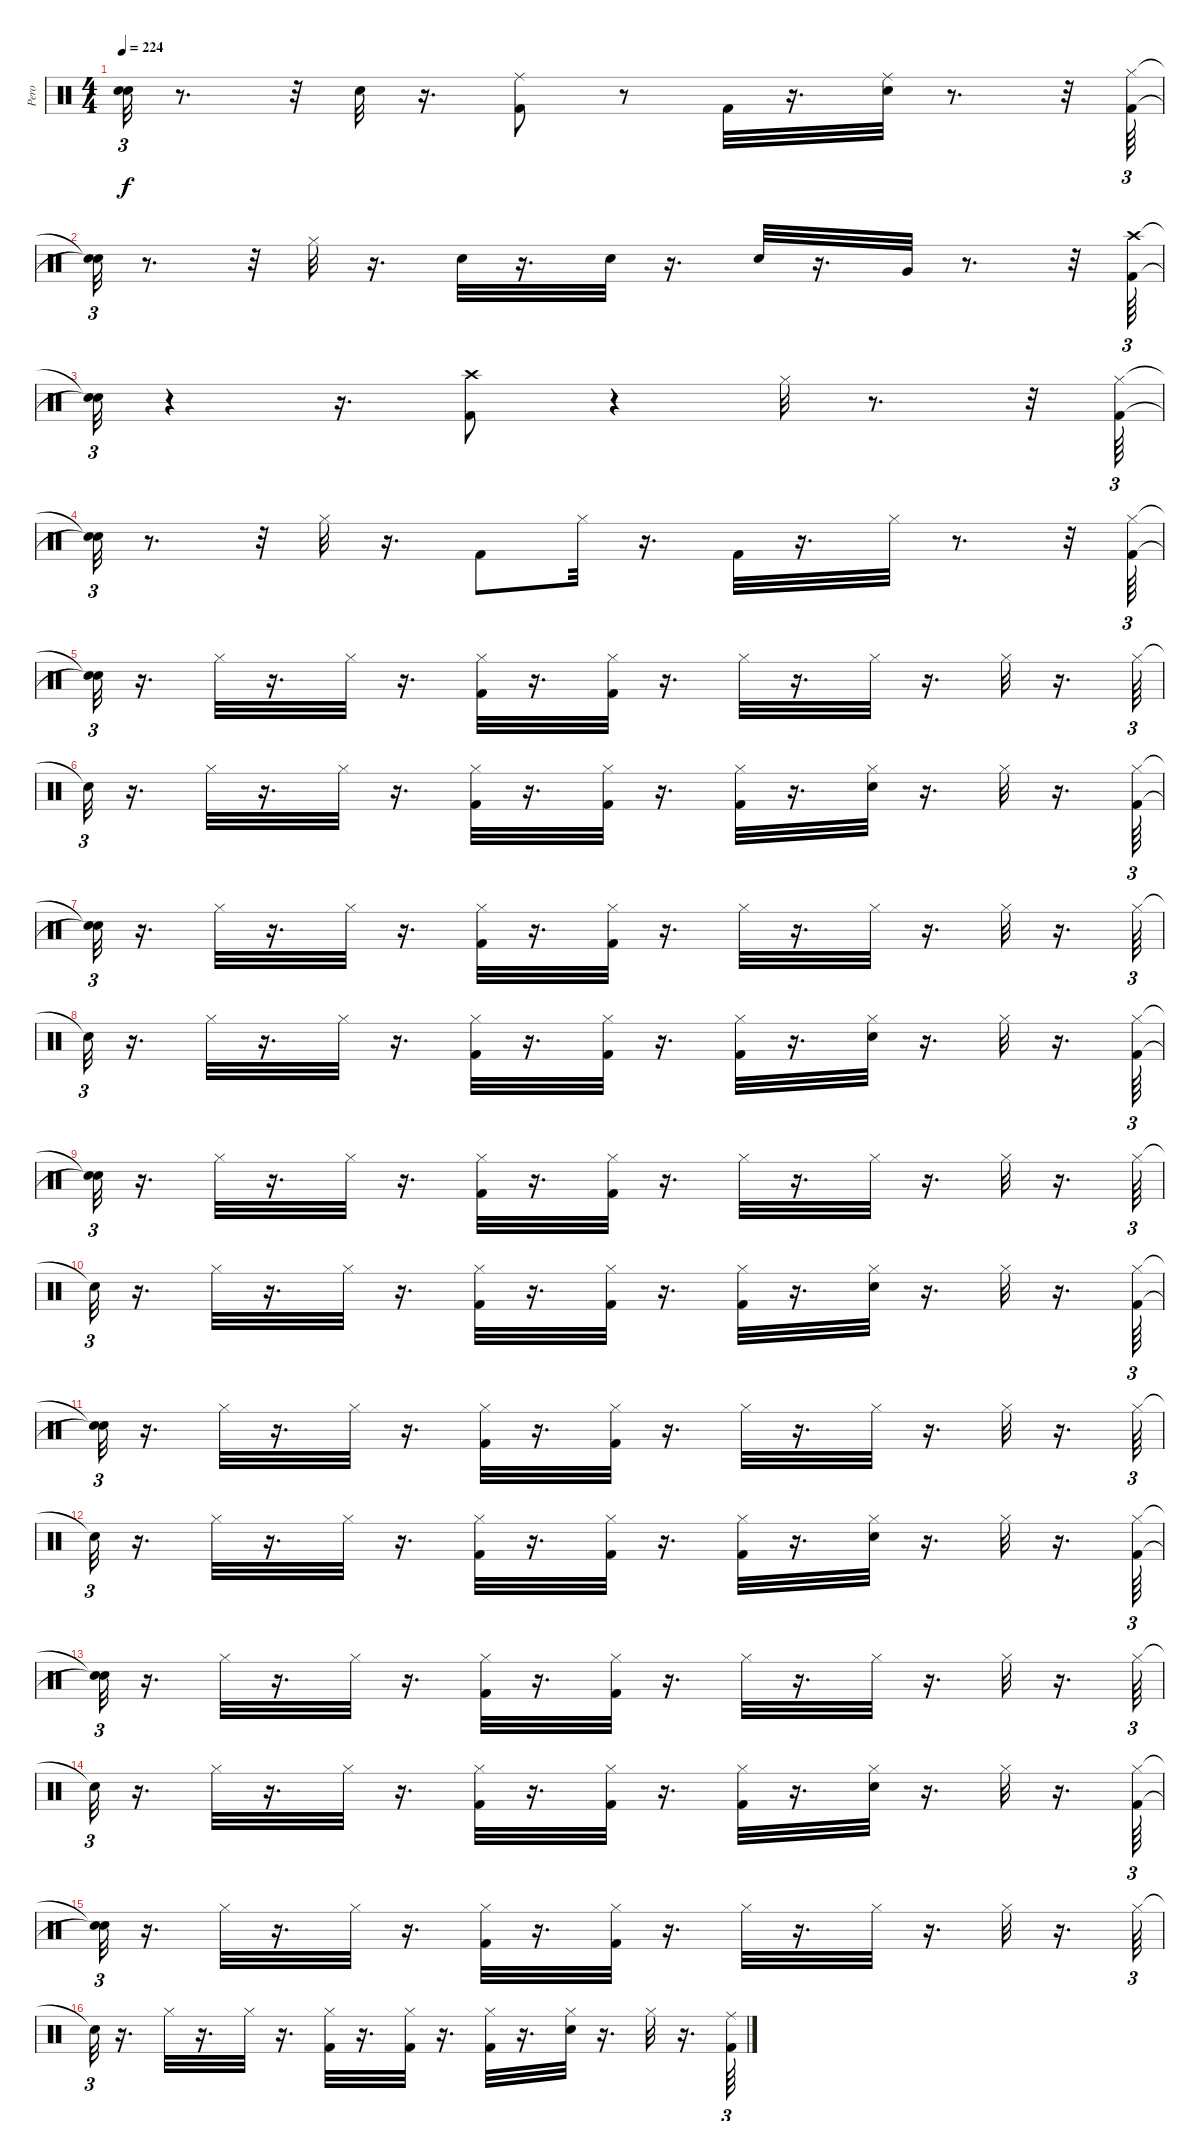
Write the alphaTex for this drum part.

\track ("Pero" "Pero") {instrument percussion}
\staff {score}
\articulation defaults
\ts (4 4)
\tempo 224
\clef neutral
\ks c
("Snare (hit)"{t} "Snare (hit)"{t}).32{tu (3 2) dy f} r.8{d} r.32 "Snare (hit) 2".32 r.16{d} ("Ride (middle)" "Kick (hit) 2").8 r.8 "Kick (hit) 2".32 r.16{d} ("Snare (hit) 2" "Ride (middle)").32 r.8{d} r.32 ("Kick (hit) 2" "Hi-Hat (closed)").64{tu (3 2)} |
("Snare (hit)"{t} "Snare (hit)"{t}).32{tu (3 2)} r.8{d} r.32 "Hi-Hat (closed)".32 r.16{d} "Snare (hit) 2".32 r.16{d} "Snare (hit) 2".32 r.16{d} "Snare (hit) 2".32 r.16{d} "Very Low Tom (hit)".32 r.8{d} r.32 ("Crash high (hit)" "Kick (hit) 2").64{tu (3 2)} |
("Snare (hit)"{t} "Snare (hit)"{t}).32{tu (3 2)} r.4 r.16{d} ("Crash high (hit)" "Kick (hit) 2").8 r.4 "Hi-Hat (closed)".32 r.8{d} r.32 ("Hi-Hat (closed)" "Kick (hit) 2").64{tu (3 2)} |
("Snare (hit)"{t} "Snare (hit)"{t}).32{tu (3 2)} r.8{d} r.32 "Hi-Hat (closed)".32 r.16{d} "Kick (hit) 2".8 "Hi-Hat (closed)".32 r.16{d} "Kick (hit) 2".32 r.16{d} "Hi-Hat (closed)".32 r.8{d} r.32 ("Hi-Hat (closed)" "Kick (hit) 2").64{tu (3 2)} |
("Snare (hit)"{t} "Snare (hit)"{t}).32{tu (3 2)} r.16{d} "Hi-Hat (closed)".32 r.16{d} "Hi-Hat (closed)".32 r.16{d} ("Hi-Hat (closed)" "Kick (hit) 2").32 r.16{d} ("Hi-Hat (closed)" "Kick (hit) 2").32 r.16{d} "Hi-Hat (closed)".32 r.16{d} "Hi-Hat (closed)".32 r.16{d} "Hi-Hat (closed)".32 r.16{d} "Hi-Hat (closed)".64{tu (3 2)} |
"Snare (hit)"{t}.32{tu (3 2)} r.16{d} "Hi-Hat (closed)".32 r.16{d} "Hi-Hat (closed)".32 r.16{d} ("Hi-Hat (closed)" "Kick (hit) 2").32 r.16{d} ("Hi-Hat (closed)" "Kick (hit) 2").32 r.16{d} ("Hi-Hat (closed)" "Kick (hit) 2").32 r.16{d} ("Hi-Hat (closed)" "Snare (hit) 2").32 r.16{d} "Hi-Hat (closed)".32 r.16{d} ("Hi-Hat (closed)" "Kick (hit) 2").64{tu (3 2)} |
("Snare (hit)"{t} "Snare (hit)"{t}).32{tu (3 2)} r.16{d} "Hi-Hat (closed)".32 r.16{d} "Hi-Hat (closed)".32 r.16{d} ("Hi-Hat (closed)" "Kick (hit) 2").32 r.16{d} ("Hi-Hat (closed)" "Kick (hit) 2").32 r.16{d} "Hi-Hat (closed)".32 r.16{d} "Hi-Hat (closed)".32 r.16{d} "Hi-Hat (closed)".32 r.16{d} "Hi-Hat (closed)".64{tu (3 2)} |
"Snare (hit)"{t}.32{tu (3 2)} r.16{d} "Hi-Hat (closed)".32 r.16{d} "Hi-Hat (closed)".32 r.16{d} ("Hi-Hat (closed)" "Kick (hit) 2").32 r.16{d} ("Hi-Hat (closed)" "Kick (hit) 2").32 r.16{d} ("Hi-Hat (closed)" "Kick (hit) 2").32 r.16{d} ("Hi-Hat (closed)" "Snare (hit) 2").32 r.16{d} "Hi-Hat (closed)".32 r.16{d} ("Hi-Hat (closed)" "Kick (hit) 2").64{tu (3 2)} |
("Snare (hit)"{t} "Snare (hit)"{t}).32{tu (3 2)} r.16{d} "Hi-Hat (closed)".32 r.16{d} "Hi-Hat (closed)".32 r.16{d} ("Hi-Hat (closed)" "Kick (hit) 2").32 r.16{d} ("Hi-Hat (closed)" "Kick (hit) 2").32 r.16{d} "Hi-Hat (closed)".32 r.16{d} "Hi-Hat (closed)".32 r.16{d} "Hi-Hat (closed)".32 r.16{d} "Hi-Hat (closed)".64{tu (3 2)} |
"Snare (hit)"{t}.32{tu (3 2)} r.16{d} "Hi-Hat (closed)".32 r.16{d} "Hi-Hat (closed)".32 r.16{d} ("Hi-Hat (closed)" "Kick (hit) 2").32 r.16{d} ("Hi-Hat (closed)" "Kick (hit) 2").32 r.16{d} ("Hi-Hat (closed)" "Kick (hit) 2").32 r.16{d} ("Hi-Hat (closed)" "Snare (hit) 2").32 r.16{d} "Hi-Hat (closed)".32 r.16{d} ("Hi-Hat (closed)" "Kick (hit) 2").64{tu (3 2)} |
("Snare (hit)"{t} "Snare (hit)"{t}).32{tu (3 2)} r.16{d} "Hi-Hat (closed)".32 r.16{d} "Hi-Hat (closed)".32 r.16{d} ("Hi-Hat (closed)" "Kick (hit) 2").32 r.16{d} ("Hi-Hat (closed)" "Kick (hit) 2").32 r.16{d} "Hi-Hat (closed)".32 r.16{d} "Hi-Hat (closed)".32 r.16{d} "Hi-Hat (closed)".32 r.16{d} "Hi-Hat (closed)".64{tu (3 2)} |
"Snare (hit)"{t}.32{tu (3 2)} r.16{d} "Hi-Hat (closed)".32 r.16{d} "Hi-Hat (closed)".32 r.16{d} ("Hi-Hat (closed)" "Kick (hit) 2").32 r.16{d} ("Hi-Hat (closed)" "Kick (hit) 2").32 r.16{d} ("Hi-Hat (closed)" "Kick (hit) 2").32 r.16{d} ("Hi-Hat (closed)" "Snare (hit) 2").32 r.16{d} "Hi-Hat (closed)".32 r.16{d} ("Hi-Hat (closed)" "Kick (hit) 2").64{tu (3 2)} |
("Snare (hit)"{t} "Snare (hit)"{t}).32{tu (3 2)} r.16{d} "Hi-Hat (closed)".32 r.16{d} "Hi-Hat (closed)".32 r.16{d} ("Hi-Hat (closed)" "Kick (hit) 2").32 r.16{d} ("Hi-Hat (closed)" "Kick (hit) 2").32 r.16{d} "Hi-Hat (closed)".32 r.16{d} "Hi-Hat (closed)".32 r.16{d} "Hi-Hat (closed)".32 r.16{d} "Hi-Hat (closed)".64{tu (3 2)} |
"Snare (hit)"{t}.32{tu (3 2)} r.16{d} "Hi-Hat (closed)".32 r.16{d} "Hi-Hat (closed)".32 r.16{d} ("Hi-Hat (closed)" "Kick (hit) 2").32 r.16{d} ("Hi-Hat (closed)" "Kick (hit) 2").32 r.16{d} ("Hi-Hat (closed)" "Kick (hit) 2").32 r.16{d} ("Hi-Hat (closed)" "Snare (hit) 2").32 r.16{d} "Hi-Hat (closed)".32 r.16{d} ("Hi-Hat (closed)" "Kick (hit) 2").64{tu (3 2)} |
("Snare (hit)"{t} "Snare (hit)"{t}).32{tu (3 2)} r.16{d} "Hi-Hat (closed)".32 r.16{d} "Hi-Hat (closed)".32 r.16{d} ("Hi-Hat (closed)" "Kick (hit) 2").32 r.16{d} ("Hi-Hat (closed)" "Kick (hit) 2").32 r.16{d} "Hi-Hat (closed)".32 r.16{d} "Hi-Hat (closed)".32 r.16{d} "Hi-Hat (closed)".32 r.16{d} "Hi-Hat (closed)".64{tu (3 2)} |
"Snare (hit)"{t}.32{tu (3 2)} r.16{d} "Hi-Hat (closed)".32 r.16{d} "Hi-Hat (closed)".32 r.16{d} ("Hi-Hat (closed)" "Kick (hit) 2").32 r.16{d} ("Hi-Hat (closed)" "Kick (hit) 2").32 r.16{d} ("Hi-Hat (closed)" "Kick (hit) 2").32 r.16{d} ("Hi-Hat (closed)" "Snare (hit) 2").32 r.16{d} "Hi-Hat (closed)".32 r.16{d} ("Ride (middle)" "Kick (hit) 2").64{tu (3 2)}
